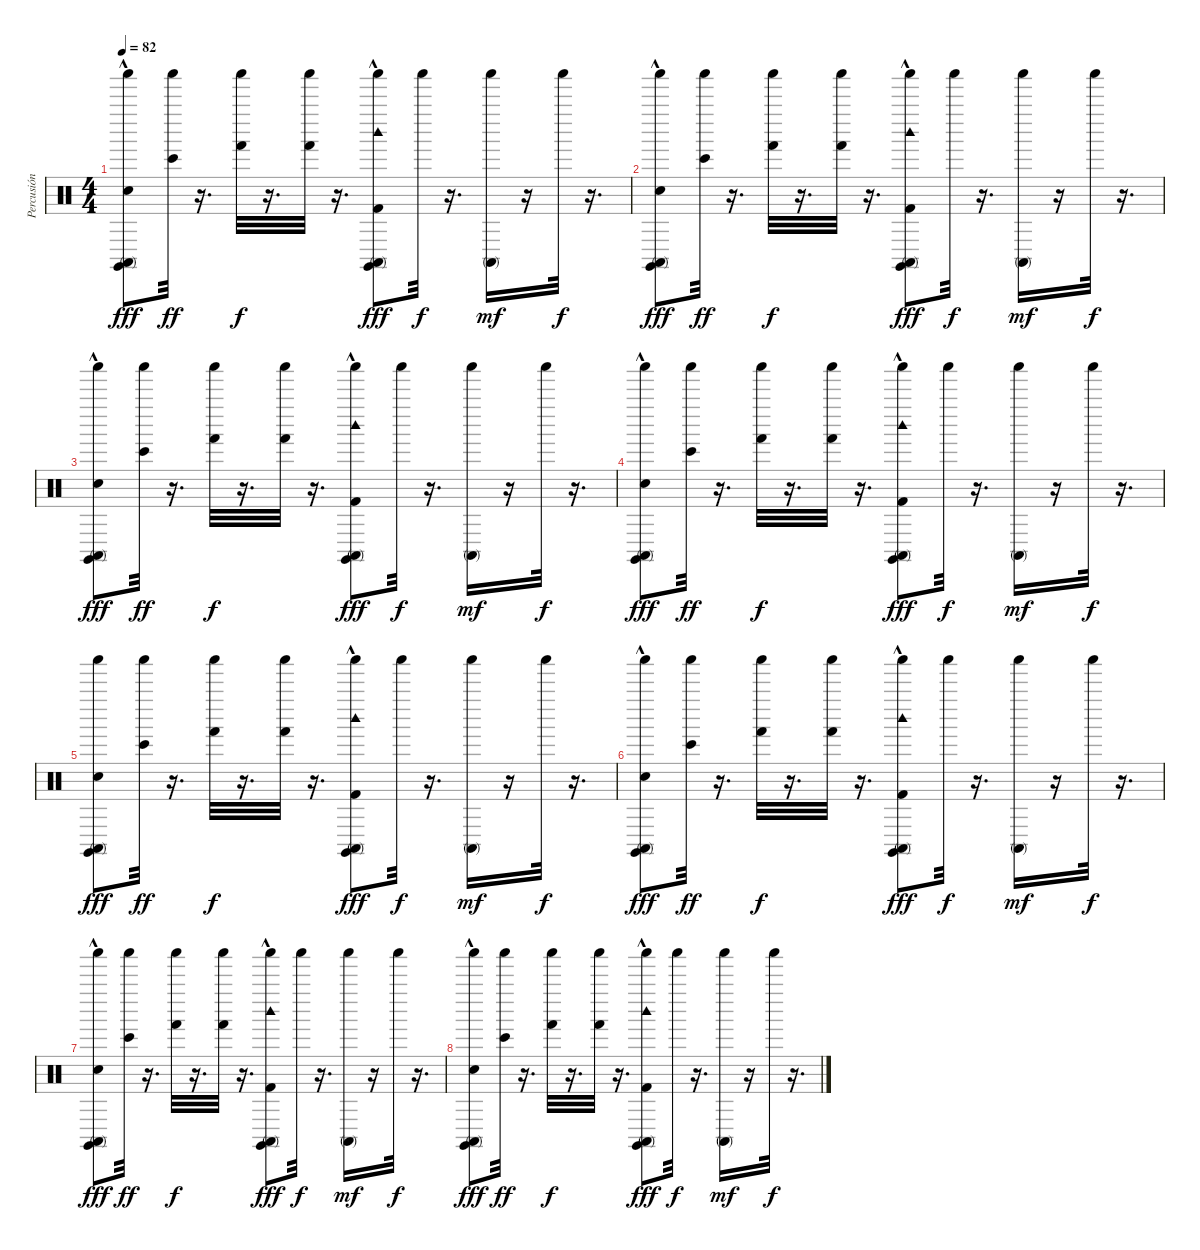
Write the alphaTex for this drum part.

\track ("Percusión" "Percusión") {instrument percussion}
\staff {score}
\articulation defaults
\ts (4 4)
\tempo 82
\clef neutral
\ks c
("Claves (hit)" "Shaker (hit)" "Conga high (mute)" "Electric Snare (hit)"{hac}).8{dy fff} ("Shaker (hit)" "Bongo High (hit)").32{dy ff} r.16{d} ("Shaker (hit)" "Hand (hit)").32{dy f} r.16{d} ("Shaker (hit)" "Hand (hit)").32 r.16{d} ("Woodblock high (hit)" "Conga high (mute)" "Shaker (hit)" "Claves (hit)" "Kick (hit) 2"{hac}).8{dy fff} "Shaker (hit)".32{dy f} r.16{d} ("Shaker (hit)" "Conga high (mute)").16{dy mf} r.16 "Shaker (hit)".32{dy f} r.16{d} |
("Claves (hit)" "Shaker (hit)" "Conga high (mute)" "Electric Snare (hit)"{hac}).8{dy fff} ("Shaker (hit)" "Bongo High (hit)").32{dy ff} r.16{d} ("Shaker (hit)" "Hand (hit)").32{dy f} r.16{d} ("Shaker (hit)" "Hand (hit)").32 r.16{d} ("Woodblock high (hit)" "Conga high (mute)" "Shaker (hit)" "Claves (hit)" "Kick (hit) 2"{hac}).8{dy fff} "Shaker (hit)".32{dy f} r.16{d} ("Shaker (hit)" "Conga high (mute)").16{dy mf} r.16 "Shaker (hit)".32{dy f} r.16{d} |
("Claves (hit)" "Shaker (hit)" "Conga high (mute)" "Electric Snare (hit)"{hac}).8{dy fff} ("Shaker (hit)" "Bongo High (hit)").32{dy ff} r.16{d} ("Shaker (hit)" "Hand (hit)").32{dy f} r.16{d} ("Shaker (hit)" "Hand (hit)").32 r.16{d} ("Woodblock high (hit)" "Conga high (mute)" "Shaker (hit)" "Claves (hit)" "Kick (hit) 2"{hac}).8{dy fff} "Shaker (hit)".32{dy f} r.16{d} ("Shaker (hit)" "Conga high (mute)").16{dy mf} r.16 "Shaker (hit)".32{dy f} r.16{d} |
("Claves (hit)" "Shaker (hit)" "Conga high (mute)" "Electric Snare (hit)"{hac}).8{dy fff} ("Shaker (hit)" "Bongo High (hit)").32{dy ff} r.16{d} ("Shaker (hit)" "Hand (hit)").32{dy f} r.16{d} ("Shaker (hit)" "Hand (hit)").32 r.16{d} ("Woodblock high (hit)" "Conga high (mute)" "Shaker (hit)" "Claves (hit)" "Kick (hit) 2"{hac}).8{dy fff} "Shaker (hit)".32{dy f} r.16{d} ("Shaker (hit)" "Conga high (mute)").16{dy mf} r.16 "Shaker (hit)".32{dy f} r.16{d} |
("Claves (hit)" "Shaker (hit)" "Conga high (mute)" "Electric Snare (hit)").8{dy fff} ("Shaker (hit)" "Bongo High (hit)").32{dy ff} r.16{d} ("Shaker (hit)" "Hand (hit)").32{dy f} r.16{d} ("Shaker (hit)" "Hand (hit)").32 r.16{d} ("Woodblock high (hit)" "Conga high (mute)" "Shaker (hit)" "Claves (hit)" "Kick (hit) 2"{hac}).8{dy fff} "Shaker (hit)".32{dy f} r.16{d} ("Shaker (hit)" "Conga high (mute)").16{dy mf} r.16 "Shaker (hit)".32{dy f} r.16{d} |
("Claves (hit)" "Shaker (hit)" "Conga high (mute)" "Electric Snare (hit)"{hac}).8{dy fff} ("Shaker (hit)" "Bongo High (hit)").32{dy ff} r.16{d} ("Shaker (hit)" "Hand (hit)").32{dy f} r.16{d} ("Shaker (hit)" "Hand (hit)").32 r.16{d} ("Woodblock high (hit)" "Conga high (mute)" "Shaker (hit)" "Claves (hit)" "Kick (hit) 2"{hac}).8{dy fff} "Shaker (hit)".32{dy f} r.16{d} ("Shaker (hit)" "Conga high (mute)").16{dy mf} r.16 "Shaker (hit)".32{dy f} r.16{d} |
("Claves (hit)" "Shaker (hit)" "Conga high (mute)" "Electric Snare (hit)"{hac}).8{dy fff} ("Shaker (hit)" "Bongo High (hit)").32{dy ff} r.16{d} ("Shaker (hit)" "Hand (hit)").32{dy f} r.16{d} ("Shaker (hit)" "Hand (hit)").32 r.16{d} ("Woodblock high (hit)" "Conga high (mute)" "Shaker (hit)" "Claves (hit)" "Kick (hit) 2"{hac}).8{dy fff} "Shaker (hit)".32{dy f} r.16{d} ("Shaker (hit)" "Conga high (mute)").16{dy mf} r.16 "Shaker (hit)".32{dy f} r.16{d} |
("Claves (hit)" "Shaker (hit)" "Conga high (mute)" "Electric Snare (hit)"{hac}).8{dy fff} ("Shaker (hit)" "Bongo High (hit)").32{dy ff} r.16{d} ("Shaker (hit)" "Hand (hit)").32{dy f} r.16{d} ("Shaker (hit)" "Hand (hit)").32 r.16{d} ("Woodblock high (hit)" "Conga high (mute)" "Shaker (hit)" "Claves (hit)" "Kick (hit) 2"{hac}).8{dy fff} "Shaker (hit)".32{dy f} r.16{d} ("Shaker (hit)" "Conga high (mute)").16{dy mf} r.16 "Shaker (hit)".32{dy f} r.16{d}
